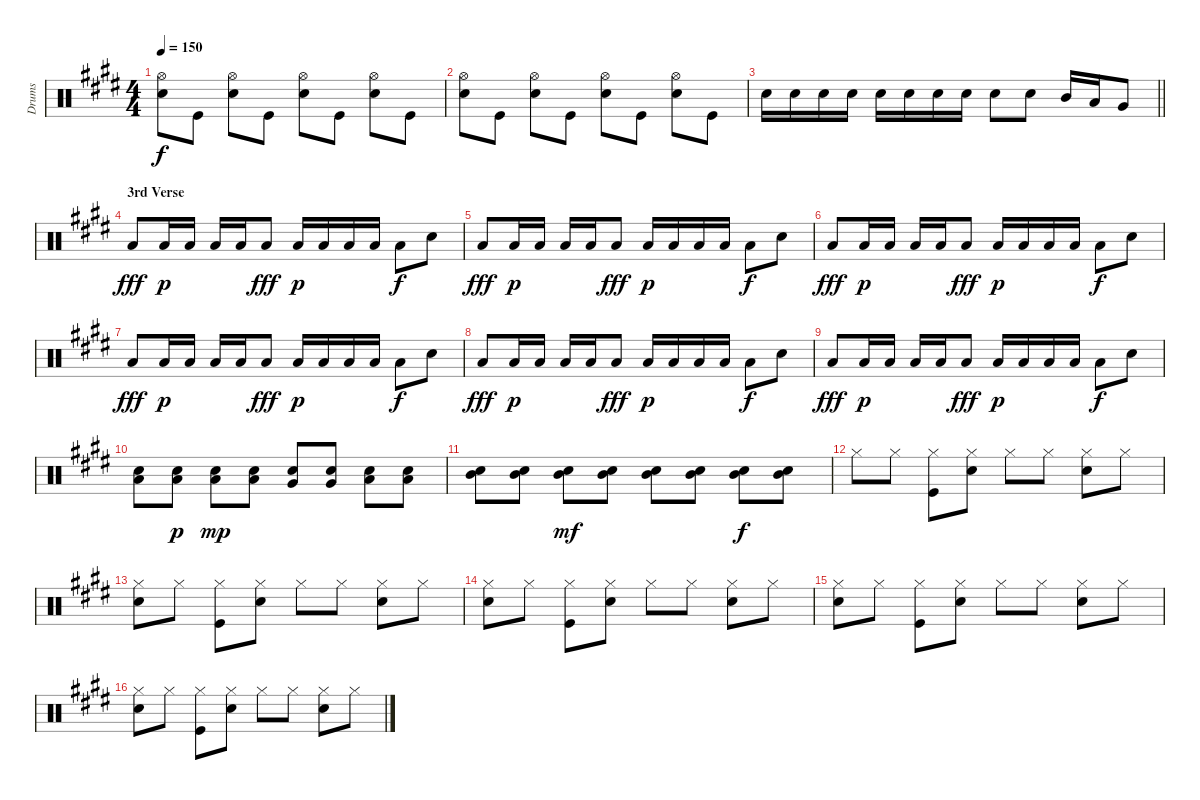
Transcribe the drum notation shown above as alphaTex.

\track ("Drums" "Drums") {instrument percussion}
\staff {score}
\articulation defaults
\ts (4 4)
\tempo 150
\clef neutral
\ks c#minor
("Snare (hit) 2" "Hi-Hat (open)").8{dy f} "Kick (hit)".8 ("Snare (hit) 2" "Hi-Hat (open)").8 "Kick (hit)".8 ("Snare (hit) 2" "Hi-Hat (open)").8 "Kick (hit)".8 ("Snare (hit) 2" "Hi-Hat (open)").8 "Kick (hit)".8 |
("Snare (hit) 2" "Hi-Hat (open)").8 "Kick (hit)".8 ("Snare (hit) 2" "Hi-Hat (open)").8 "Kick (hit)".8 ("Snare (hit) 2" "Hi-Hat (open)").8 "Kick (hit)".8 ("Snare (hit) 2" "Hi-Hat (open)").8 "Kick (hit)".8 |
\barLineRight lightlight "Snare (hit) 2".16 "Snare (hit) 2".16 "Snare (hit) 2".16 "Snare (hit) 2".16 "Snare (hit) 2".16 "Snare (hit) 2".16 "Snare (hit) 2".16 "Snare (hit) 2".16 "Snare (hit) 2".8 "Snare (hit) 2".8 "Mid Tom (hit)".16 "Low Tom (hit)".16 "Very Low Tom (hit)".8
|
\section ("" "3rd Verse")
"Low Floor Tom (hit)".8{dy fff} "Low Floor Tom (hit)".16{dy p} "Low Floor Tom (hit)".16 "Low Floor Tom (hit)".16 "Low Floor Tom (hit)".16 "Low Floor Tom (hit)".8{dy fff} "Low Floor Tom (hit)".16{dy p} "Low Floor Tom (hit)".16 "Low Floor Tom (hit)".16 "Low Floor Tom (hit)".16 "Low Floor Tom (hit)".8{dy f} "Snare (hit) 2".8 |
"Low Floor Tom (hit)".8{dy fff} "Low Floor Tom (hit)".16{dy p} "Low Floor Tom (hit)".16 "Low Floor Tom (hit)".16 "Low Floor Tom (hit)".16 "Low Floor Tom (hit)".8{dy fff} "Low Floor Tom (hit)".16{dy p} "Low Floor Tom (hit)".16 "Low Floor Tom (hit)".16 "Low Floor Tom (hit)".16 "Low Floor Tom (hit)".8{dy f} "Snare (hit) 2".8 |
"Low Floor Tom (hit)".8{dy fff} "Low Floor Tom (hit)".16{dy p} "Low Floor Tom (hit)".16 "Low Floor Tom (hit)".16 "Low Floor Tom (hit)".16 "Low Floor Tom (hit)".8{dy fff} "Low Floor Tom (hit)".16{dy p} "Low Floor Tom (hit)".16 "Low Floor Tom (hit)".16 "Low Floor Tom (hit)".16 "Low Floor Tom (hit)".8{dy f} "Snare (hit) 2".8 |
"Low Floor Tom (hit)".8{dy fff} "Low Floor Tom (hit)".16{dy p} "Low Floor Tom (hit)".16 "Low Floor Tom (hit)".16 "Low Floor Tom (hit)".16 "Low Floor Tom (hit)".8{dy fff} "Low Floor Tom (hit)".16{dy p} "Low Floor Tom (hit)".16 "Low Floor Tom (hit)".16 "Low Floor Tom (hit)".16 "Low Floor Tom (hit)".8{dy f} "Snare (hit) 2".8 |
"Low Floor Tom (hit)".8{dy fff} "Low Floor Tom (hit)".16{dy p} "Low Floor Tom (hit)".16 "Low Floor Tom (hit)".16 "Low Floor Tom (hit)".16 "Low Floor Tom (hit)".8{dy fff} "Low Floor Tom (hit)".16{dy p} "Low Floor Tom (hit)".16 "Low Floor Tom (hit)".16 "Low Floor Tom (hit)".16 "Low Floor Tom (hit)".8{dy f} "Snare (hit) 2".8 |
"Low Floor Tom (hit)".8{dy fff} "Low Floor Tom (hit)".16{dy p} "Low Floor Tom (hit)".16 "Low Floor Tom (hit)".16 "Low Floor Tom (hit)".16 "Low Floor Tom (hit)".8{dy fff} "Low Floor Tom (hit)".16{dy p} "Low Floor Tom (hit)".16 "Low Floor Tom (hit)".16 "Low Floor Tom (hit)".16 "Low Floor Tom (hit)".8{dy f} "Snare (hit) 2".8 |
("Snare (hit) 2" "Low Floor Tom (hit)").8 ("Snare (hit) 2" "Low Floor Tom (hit)").8{dy p} ("Snare (hit) 2" "Low Floor Tom (hit)").8{dy mp} ("Snare (hit) 2" "Low Floor Tom (hit)").8 ("Snare (hit) 2" "Very Low Tom (hit)").8 ("Snare (hit) 2" "Very Low Tom (hit)").8 ("Snare (hit) 2" "Low Tom (hit)").8 ("Snare (hit) 2" "Low Tom (hit)").8 |
("Snare (hit) 2" "Mid Tom (hit)").8 ("Snare (hit) 2" "Mid Tom (hit)").8 ("Snare (hit) 2" "Mid Tom (hit)").8{dy mf} ("Snare (hit) 2" "Mid Tom (hit)").8 ("Snare (hit) 2" "Mid Tom (hit)").8 ("Snare (hit) 2" "Mid Tom (hit)").8 ("Snare (hit) 2" "Mid Tom (hit)").8{dy f} ("Snare (hit) 2" "Mid Tom (hit)").8 |
"Hi-Hat (closed)".8 "Hi-Hat (closed)".8 ("Hi-Hat (closed)" "Kick (hit)").8 ("Hi-Hat (closed)" "Snare (hit) 2").8 "Hi-Hat (closed)".8 "Hi-Hat (closed)".8 ("Hi-Hat (closed)" "Snare (hit) 2").8 "Hi-Hat (closed)".8 |
("Hi-Hat (closed)" "Snare (hit) 2").8 "Hi-Hat (closed)".8 ("Hi-Hat (closed)" "Kick (hit)").8 ("Hi-Hat (closed)" "Snare (hit) 2").8 "Hi-Hat (closed)".8 "Hi-Hat (closed)".8 ("Hi-Hat (closed)" "Snare (hit) 2").8 "Hi-Hat (closed)".8 |
("Hi-Hat (closed)" "Snare (hit) 2").8 "Hi-Hat (closed)".8 ("Hi-Hat (closed)" "Kick (hit)").8 ("Hi-Hat (closed)" "Snare (hit) 2").8 "Hi-Hat (closed)".8 "Hi-Hat (closed)".8 ("Hi-Hat (closed)" "Snare (hit) 2").8 "Hi-Hat (closed)".8 |
("Hi-Hat (closed)" "Snare (hit) 2").8 "Hi-Hat (closed)".8 ("Hi-Hat (closed)" "Kick (hit)").8 ("Hi-Hat (closed)" "Snare (hit) 2").8 "Hi-Hat (closed)".8 "Hi-Hat (closed)".8 ("Hi-Hat (closed)" "Snare (hit) 2").8 "Hi-Hat (closed)".8 |
("Hi-Hat (closed)" "Snare (hit) 2").8 "Hi-Hat (closed)".8 ("Hi-Hat (closed)" "Kick (hit)").8 ("Hi-Hat (closed)" "Snare (hit) 2").8 "Hi-Hat (closed)".8 "Hi-Hat (closed)".8 ("Hi-Hat (closed)" "Snare (hit) 2").8 "Hi-Hat (closed)".8
